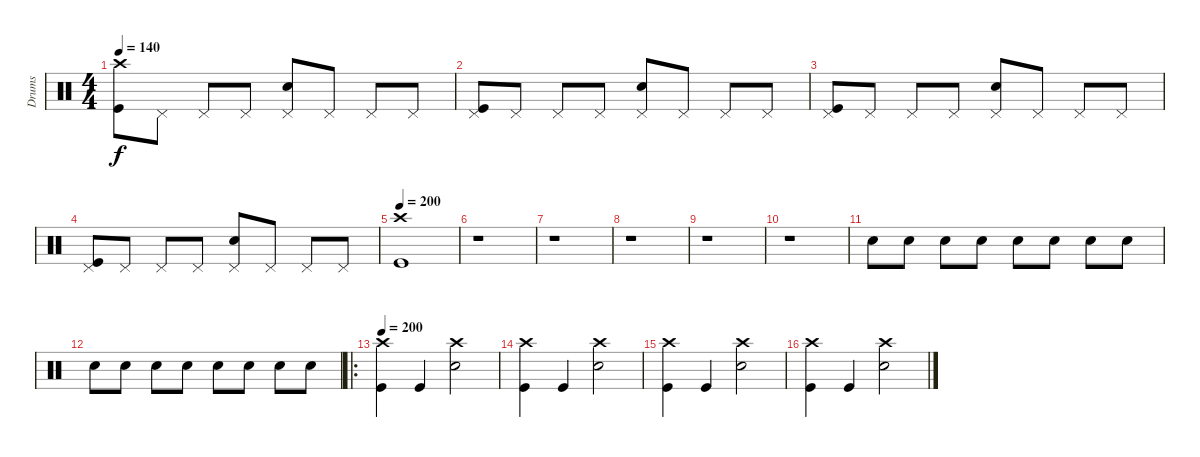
\track ("Drums" "Drums") {instrument percussion}
\staff {score}
\articulation defaults
\ts (4 4)
\tempo 140
\clef neutral
\ks c
("Crash high (hit)" "Kick (hit)").8{dy f} "Pedal Hi-Hat (hit)".8 "Pedal Hi-Hat (hit)".8 "Pedal Hi-Hat (hit)".8 ("Pedal Hi-Hat (hit)" "Snare (hit) 2").8 "Pedal Hi-Hat (hit)".8 "Pedal Hi-Hat (hit)".8 "Pedal Hi-Hat (hit)".8 |
("Pedal Hi-Hat (hit)" "Kick (hit)").8 "Pedal Hi-Hat (hit)".8 "Pedal Hi-Hat (hit)".8 "Pedal Hi-Hat (hit)".8 ("Pedal Hi-Hat (hit)" "Snare (hit) 2").8 "Pedal Hi-Hat (hit)".8 "Pedal Hi-Hat (hit)".8 "Pedal Hi-Hat (hit)".8 |
("Pedal Hi-Hat (hit)" "Kick (hit)").8 "Pedal Hi-Hat (hit)".8 "Pedal Hi-Hat (hit)".8 "Pedal Hi-Hat (hit)".8 ("Pedal Hi-Hat (hit)" "Snare (hit) 2").8 "Pedal Hi-Hat (hit)".8 "Pedal Hi-Hat (hit)".8 "Pedal Hi-Hat (hit)".8 |
("Pedal Hi-Hat (hit)" "Kick (hit)").8 "Pedal Hi-Hat (hit)".8 "Pedal Hi-Hat (hit)".8 "Pedal Hi-Hat (hit)".8 ("Pedal Hi-Hat (hit)" "Snare (hit) 2").8 "Pedal Hi-Hat (hit)".8 "Pedal Hi-Hat (hit)".8 "Pedal Hi-Hat (hit)".8 |
\tempo 200
("Crash high (hit)" "Kick (hit)").1 |
r.1 |
r.1 |
r.1 |
r.1 |
r.1 |
"Snare (hit) 2".8{volume 10} "Snare (hit) 2".8 "Snare (hit) 2".8{volume 11} "Snare (hit) 2".8 "Snare (hit) 2".8{volume 13} "Snare (hit) 2".8 "Snare (hit) 2".8{volume 14} "Snare (hit) 2".8 |
"Snare (hit) 2".8{volume 16} "Snare (hit) 2".8 "Snare (hit) 2".8 "Snare (hit) 2".8 "Snare (hit) 2".8 "Snare (hit) 2".8 "Snare (hit) 2".8 "Snare (hit) 2".8 |
\ro
\tempo 200
("Crash high (hit)" "Kick (hit)").4 "Kick (hit)".4 ("Crash high (hit)" "Snare (hit) 2").2 |
("Crash high (hit)" "Kick (hit)").4 "Kick (hit)".4 ("Crash high (hit)" "Snare (hit) 2").2 |
("Crash high (hit)" "Kick (hit)").4 "Kick (hit)".4 ("Crash high (hit)" "Snare (hit) 2").2 |
("Crash high (hit)" "Kick (hit)").4 "Kick (hit)".4 ("Crash high (hit)" "Snare (hit) 2").2
